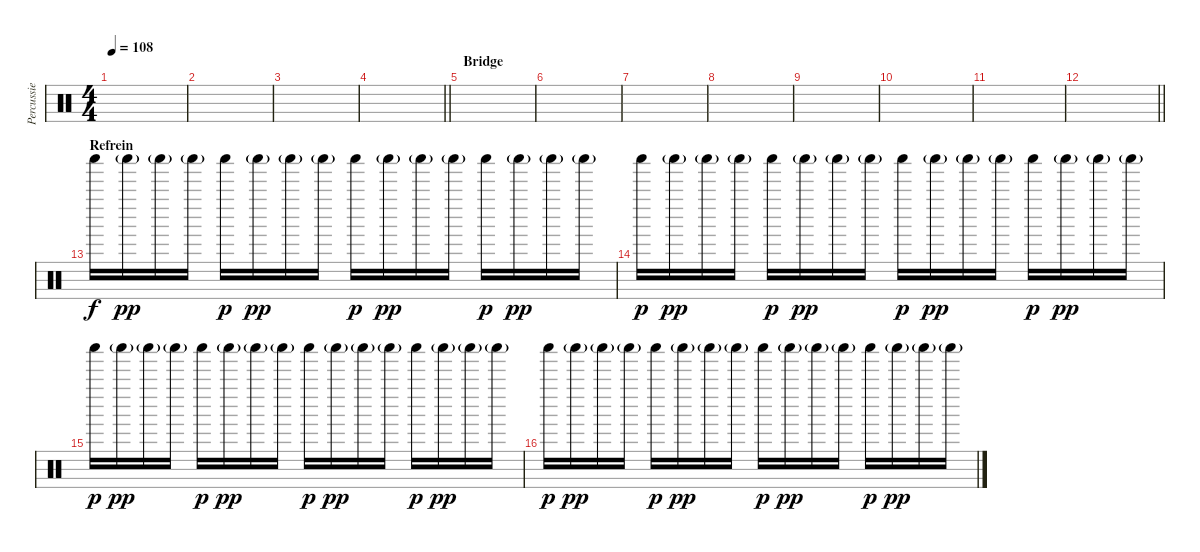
\track ("Percussie" "Percussie") {instrument percussion}
\staff {score}
\articulation defaults
\ts (4 4)
\tempo 108
\clef neutral
\ks c
|
|
|
\barLineRight lightlight
|
\section ("" "Bridge")
|
|
|
|
|
|
|
\barLineRight lightlight
|
\section ("" "Refrein")
"Shaker (hit)".16 "Shaker (hit)"{g}.16{dy pp} "Shaker (hit)"{g}.16 "Shaker (hit)"{g}.16 "Shaker (hit)".16{dy p} "Shaker (hit)"{g}.16{dy pp} "Shaker (hit)"{g}.16 "Shaker (hit)"{g}.16 "Shaker (hit)".16{dy p} "Shaker (hit)"{g}.16{dy pp} "Shaker (hit)"{g}.16 "Shaker (hit)"{g}.16 "Shaker (hit)".16{dy p} "Shaker (hit)"{g}.16{dy pp} "Shaker (hit)"{g}.16 "Shaker (hit)"{g}.16 |
"Shaker (hit)".16{dy p} "Shaker (hit)"{g}.16{dy pp} "Shaker (hit)"{g}.16 "Shaker (hit)"{g}.16 "Shaker (hit)".16{dy p} "Shaker (hit)"{g}.16{dy pp} "Shaker (hit)"{g}.16 "Shaker (hit)"{g}.16 "Shaker (hit)".16{dy p} "Shaker (hit)"{g}.16{dy pp} "Shaker (hit)"{g}.16 "Shaker (hit)"{g}.16 "Shaker (hit)".16{dy p} "Shaker (hit)"{g}.16{dy pp} "Shaker (hit)"{g}.16 "Shaker (hit)"{g}.16 |
"Shaker (hit)".16{dy p} "Shaker (hit)"{g}.16{dy pp} "Shaker (hit)"{g}.16 "Shaker (hit)"{g}.16 "Shaker (hit)".16{dy p} "Shaker (hit)"{g}.16{dy pp} "Shaker (hit)"{g}.16 "Shaker (hit)"{g}.16 "Shaker (hit)".16{dy p} "Shaker (hit)"{g}.16{dy pp} "Shaker (hit)"{g}.16 "Shaker (hit)"{g}.16 "Shaker (hit)".16{dy p} "Shaker (hit)"{g}.16{dy pp} "Shaker (hit)"{g}.16 "Shaker (hit)"{g}.16 |
"Shaker (hit)".16{dy p} "Shaker (hit)"{g}.16{dy pp} "Shaker (hit)"{g}.16 "Shaker (hit)"{g}.16 "Shaker (hit)".16{dy p} "Shaker (hit)"{g}.16{dy pp} "Shaker (hit)"{g}.16 "Shaker (hit)"{g}.16 "Shaker (hit)".16{dy p} "Shaker (hit)"{g}.16{dy pp} "Shaker (hit)"{g}.16 "Shaker (hit)"{g}.16 "Shaker (hit)".16{dy p} "Shaker (hit)"{g}.16{dy pp} "Shaker (hit)"{g}.16 "Shaker (hit)"{g}.16
